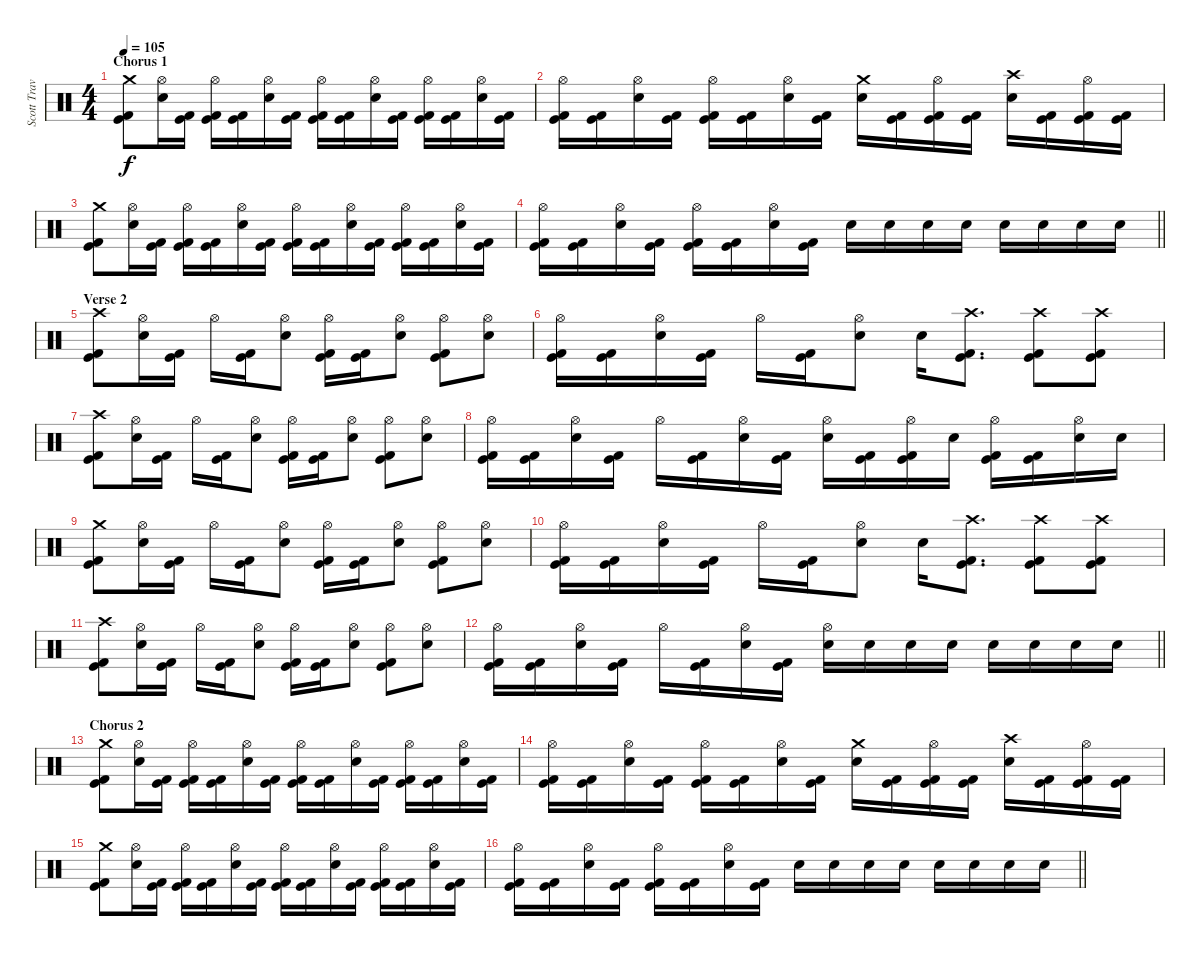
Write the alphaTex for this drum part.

\track ("Scott Travis" "Scott Trav") {instrument percussion}
\staff {score}
\articulation defaults
\ts (4 4)
\section ("" "Chorus 1")
\tempo 105
\clef neutral
\ks c
("Crash medium (hit)" "Kick (hit)" "Kick (hit) 2").8{dy f} ("Hi-Hat (open)" "Snare (hit) 2").16 ("Kick (hit) 2" "Kick (hit)").16 ("Hi-Hat (open)" "Kick (hit) 2" "Kick (hit)").16 ("Kick (hit) 2" "Kick (hit)").16 ("Hi-Hat (open)" "Snare (hit) 2").16 ("Kick (hit) 2" "Kick (hit)").16 ("Hi-Hat (open)" "Kick (hit) 2" "Kick (hit)").16 ("Kick (hit) 2" "Kick (hit)").16 ("Hi-Hat (open)" "Snare (hit) 2").16 ("Kick (hit) 2" "Kick (hit)").16 ("Hi-Hat (open)" "Kick (hit) 2" "Kick (hit)").16 ("Kick (hit) 2" "Kick (hit)").16 ("Hi-Hat (open)" "Snare (hit) 2").16 ("Kick (hit) 2" "Kick (hit)").16 |
("Hi-Hat (open)" "Kick (hit) 2" "Kick (hit)").16 ("Kick (hit) 2" "Kick (hit)").16 ("Hi-Hat (open)" "Snare (hit) 2").16 ("Kick (hit) 2" "Kick (hit)").16 ("Hi-Hat (open)" "Kick (hit) 2" "Kick (hit)").16 ("Kick (hit) 2" "Kick (hit)").16 ("Hi-Hat (open)" "Snare (hit) 2").16 ("Kick (hit) 2" "Kick (hit)").16 ("Crash medium (hit)" "Snare (hit) 2").16 ("Kick (hit) 2" "Kick (hit)").16 ("Hi-Hat (open)" "Kick (hit) 2" "Kick (hit)").16 ("Kick (hit) 2" "Kick (hit)").16 ("Crash high (hit)" "Snare (hit) 2").16 ("Kick (hit) 2" "Kick (hit)").16 ("Hi-Hat (open)" "Kick (hit) 2" "Kick (hit)").16 ("Kick (hit) 2" "Kick (hit)").16 |
("Crash medium (hit)" "Kick (hit)" "Kick (hit) 2").8 ("Hi-Hat (open)" "Snare (hit) 2").16 ("Kick (hit) 2" "Kick (hit)").16 ("Hi-Hat (open)" "Kick (hit) 2" "Kick (hit)").16 ("Kick (hit) 2" "Kick (hit)").16 ("Hi-Hat (open)" "Snare (hit) 2").16 ("Kick (hit) 2" "Kick (hit)").16 ("Hi-Hat (open)" "Kick (hit) 2" "Kick (hit)").16 ("Kick (hit) 2" "Kick (hit)").16 ("Hi-Hat (open)" "Snare (hit) 2").16 ("Kick (hit) 2" "Kick (hit)").16 ("Hi-Hat (open)" "Kick (hit) 2" "Kick (hit)").16 ("Kick (hit) 2" "Kick (hit)").16 ("Hi-Hat (open)" "Snare (hit) 2").16 ("Kick (hit) 2" "Kick (hit)").16 |
\barLineRight lightlight
("Hi-Hat (open)" "Kick (hit) 2" "Kick (hit)").16 ("Kick (hit) 2" "Kick (hit)").16 ("Hi-Hat (open)" "Snare (hit) 2").16 ("Kick (hit) 2" "Kick (hit)").16 ("Hi-Hat (open)" "Kick (hit) 2" "Kick (hit)").16 ("Kick (hit) 2" "Kick (hit)").16 ("Hi-Hat (open)" "Snare (hit) 2").16 ("Kick (hit) 2" "Kick (hit)").16 "Snare (hit) 2".16 "Snare (hit) 2".16 "Snare (hit) 2".16 "Snare (hit) 2".16 "Snare (hit) 2".16 "Snare (hit) 2".16 "Snare (hit) 2".16 "Snare (hit) 2".16 |
\section ("" "Verse 2")
("Crash high (hit)" "Kick (hit) 2" "Kick (hit)").8 ("Hi-Hat (open)" "Snare (hit) 2").16 ("Kick (hit) 2" "Kick (hit)").16 "Hi-Hat (open)".16 ("Kick (hit) 2" "Kick (hit)").16 ("Hi-Hat (open)" "Snare (hit) 2").8 ("Hi-Hat (open)" "Kick (hit) 2" "Kick (hit)").16 ("Kick (hit) 2" "Kick (hit)").16 ("Hi-Hat (open)" "Snare (hit) 2").8 ("Hi-Hat (open)" "Kick (hit) 2" "Kick (hit)").8 ("Hi-Hat (open)" "Snare (hit) 2").8 |
("Hi-Hat (open)" "Kick (hit) 2" "Kick (hit)").16 ("Kick (hit) 2" "Kick (hit)").16 ("Hi-Hat (open)" "Snare (hit) 2").16 ("Kick (hit) 2" "Kick (hit)").16 "Hi-Hat (open)".16 ("Kick (hit) 2" "Kick (hit)").16 ("Hi-Hat (open)" "Snare (hit) 2").8 "Snare (hit) 2".16 ("Crash high (hit)" "Kick (hit)" "Kick (hit) 2").8{d} ("Crash high (hit)" "Kick (hit) 2" "Kick (hit)").8 ("Crash high (hit)" "Kick (hit)" "Kick (hit) 2").8 |
("Crash high (hit)" "Kick (hit) 2" "Kick (hit)").8 ("Hi-Hat (open)" "Snare (hit) 2").16 ("Kick (hit) 2" "Kick (hit)").16 "Hi-Hat (open)".16 ("Kick (hit) 2" "Kick (hit)").16 ("Hi-Hat (open)" "Snare (hit) 2").8 ("Hi-Hat (open)" "Kick (hit) 2" "Kick (hit)").16 ("Kick (hit) 2" "Kick (hit)").16 ("Hi-Hat (open)" "Snare (hit) 2").8 ("Hi-Hat (open)" "Kick (hit) 2" "Kick (hit)").8 ("Hi-Hat (open)" "Snare (hit) 2").8 |
("Hi-Hat (open)" "Kick (hit) 2" "Kick (hit)").16 ("Kick (hit) 2" "Kick (hit)").16 ("Hi-Hat (open)" "Snare (hit) 2").16 ("Kick (hit) 2" "Kick (hit)").16 "Hi-Hat (open)".16 ("Kick (hit) 2" "Kick (hit)").16 ("Hi-Hat (open)" "Snare (hit) 2").16 ("Kick (hit)" "Kick (hit) 2").16 ("Hi-Hat (open)" "Snare (hit) 2").16 ("Kick (hit) 2" "Kick (hit)").16 ("Hi-Hat (open)" "Kick (hit) 2" "Kick (hit)").16 "Snare (hit) 2".16 ("Hi-Hat (open)" "Kick (hit) 2" "Kick (hit)").16 ("Kick (hit) 2" "Kick (hit)").16 ("Hi-Hat (open)" "Snare (hit) 2").16 "Snare (hit) 2".16 |
("Crash medium (hit)" "Kick (hit) 2" "Kick (hit)").8 ("Hi-Hat (open)" "Snare (hit) 2").16 ("Kick (hit) 2" "Kick (hit)").16 "Hi-Hat (open)".16 ("Kick (hit) 2" "Kick (hit)").16 ("Hi-Hat (open)" "Snare (hit) 2").8 ("Hi-Hat (open)" "Kick (hit) 2" "Kick (hit)").16 ("Kick (hit) 2" "Kick (hit)").16 ("Hi-Hat (open)" "Snare (hit) 2").8 ("Hi-Hat (open)" "Kick (hit) 2" "Kick (hit)").8 ("Hi-Hat (open)" "Snare (hit) 2").8 |
("Hi-Hat (open)" "Kick (hit) 2" "Kick (hit)").16 ("Kick (hit) 2" "Kick (hit)").16 ("Hi-Hat (open)" "Snare (hit) 2").16 ("Kick (hit) 2" "Kick (hit)").16 "Hi-Hat (open)".16 ("Kick (hit) 2" "Kick (hit)").16 ("Hi-Hat (open)" "Snare (hit) 2").8 "Snare (hit) 2".16 ("Crash high (hit)" "Kick (hit)" "Kick (hit) 2").8{d} ("Crash high (hit)" "Kick (hit) 2" "Kick (hit)").8 ("Crash high (hit)" "Kick (hit)" "Kick (hit) 2").8 |
("Crash high (hit)" "Kick (hit) 2" "Kick (hit)").8 ("Hi-Hat (open)" "Snare (hit) 2").16 ("Kick (hit) 2" "Kick (hit)").16 "Hi-Hat (open)".16 ("Kick (hit) 2" "Kick (hit)").16 ("Hi-Hat (open)" "Snare (hit) 2").8 ("Hi-Hat (open)" "Kick (hit) 2" "Kick (hit)").16 ("Kick (hit) 2" "Kick (hit)").16 ("Hi-Hat (open)" "Snare (hit) 2").8 ("Hi-Hat (open)" "Kick (hit) 2" "Kick (hit)").8 ("Hi-Hat (open)" "Snare (hit) 2").8 |
\barLineRight lightlight
("Hi-Hat (open)" "Kick (hit) 2" "Kick (hit)").16 ("Kick (hit) 2" "Kick (hit)").16 ("Hi-Hat (open)" "Snare (hit) 2").16 ("Kick (hit) 2" "Kick (hit)").16 "Hi-Hat (open)".16 ("Kick (hit) 2" "Kick (hit)").16 ("Hi-Hat (open)" "Snare (hit) 2").16 ("Kick (hit)" "Kick (hit) 2").16 ("Hi-Hat (open)" "Snare (hit) 2").16 "Snare (hit) 2".16 "Snare (hit) 2".16 "Snare (hit) 2".16 "Snare (hit) 2".16 "Snare (hit) 2".16 "Snare (hit) 2".16 "Snare (hit) 2".16 |
\section ("" "Chorus 2")
("Crash medium (hit)" "Kick (hit)" "Kick (hit) 2").8 ("Hi-Hat (open)" "Snare (hit) 2").16 ("Kick (hit) 2" "Kick (hit)").16 ("Hi-Hat (open)" "Kick (hit) 2" "Kick (hit)").16 ("Kick (hit) 2" "Kick (hit)").16 ("Hi-Hat (open)" "Snare (hit) 2").16 ("Kick (hit) 2" "Kick (hit)").16 ("Hi-Hat (open)" "Kick (hit) 2" "Kick (hit)").16 ("Kick (hit) 2" "Kick (hit)").16 ("Hi-Hat (open)" "Snare (hit) 2").16 ("Kick (hit) 2" "Kick (hit)").16 ("Hi-Hat (open)" "Kick (hit) 2" "Kick (hit)").16 ("Kick (hit) 2" "Kick (hit)").16 ("Hi-Hat (open)" "Snare (hit) 2").16 ("Kick (hit) 2" "Kick (hit)").16 |
("Hi-Hat (open)" "Kick (hit) 2" "Kick (hit)").16 ("Kick (hit) 2" "Kick (hit)").16 ("Hi-Hat (open)" "Snare (hit) 2").16 ("Kick (hit) 2" "Kick (hit)").16 ("Hi-Hat (open)" "Kick (hit) 2" "Kick (hit)").16 ("Kick (hit) 2" "Kick (hit)").16 ("Hi-Hat (open)" "Snare (hit) 2").16 ("Kick (hit) 2" "Kick (hit)").16 ("Crash medium (hit)" "Snare (hit) 2").16 ("Kick (hit) 2" "Kick (hit)").16 ("Hi-Hat (open)" "Kick (hit) 2" "Kick (hit)").16 ("Kick (hit) 2" "Kick (hit)").16 ("Crash high (hit)" "Snare (hit) 2").16 ("Kick (hit) 2" "Kick (hit)").16 ("Hi-Hat (open)" "Kick (hit) 2" "Kick (hit)").16 ("Kick (hit) 2" "Kick (hit)").16 |
("Crash medium (hit)" "Kick (hit)" "Kick (hit) 2").8 ("Hi-Hat (open)" "Snare (hit) 2").16 ("Kick (hit) 2" "Kick (hit)").16 ("Hi-Hat (open)" "Kick (hit) 2" "Kick (hit)").16 ("Kick (hit) 2" "Kick (hit)").16 ("Hi-Hat (open)" "Snare (hit) 2").16 ("Kick (hit) 2" "Kick (hit)").16 ("Hi-Hat (open)" "Kick (hit) 2" "Kick (hit)").16 ("Kick (hit) 2" "Kick (hit)").16 ("Hi-Hat (open)" "Snare (hit) 2").16 ("Kick (hit) 2" "Kick (hit)").16 ("Hi-Hat (open)" "Kick (hit) 2" "Kick (hit)").16 ("Kick (hit) 2" "Kick (hit)").16 ("Hi-Hat (open)" "Snare (hit) 2").16 ("Kick (hit) 2" "Kick (hit)").16 |
\barLineRight lightlight
("Hi-Hat (open)" "Kick (hit) 2" "Kick (hit)").16 ("Kick (hit) 2" "Kick (hit)").16 ("Hi-Hat (open)" "Snare (hit) 2").16 ("Kick (hit) 2" "Kick (hit)").16 ("Hi-Hat (open)" "Kick (hit) 2" "Kick (hit)").16 ("Kick (hit) 2" "Kick (hit)").16 ("Hi-Hat (open)" "Snare (hit) 2").16 ("Kick (hit) 2" "Kick (hit)").16 "Snare (hit) 2".16 "Snare (hit) 2".16 "Snare (hit) 2".16 "Snare (hit) 2".16 "Snare (hit) 2".16 "Snare (hit) 2".16 "Snare (hit) 2".16 "Snare (hit) 2".16
